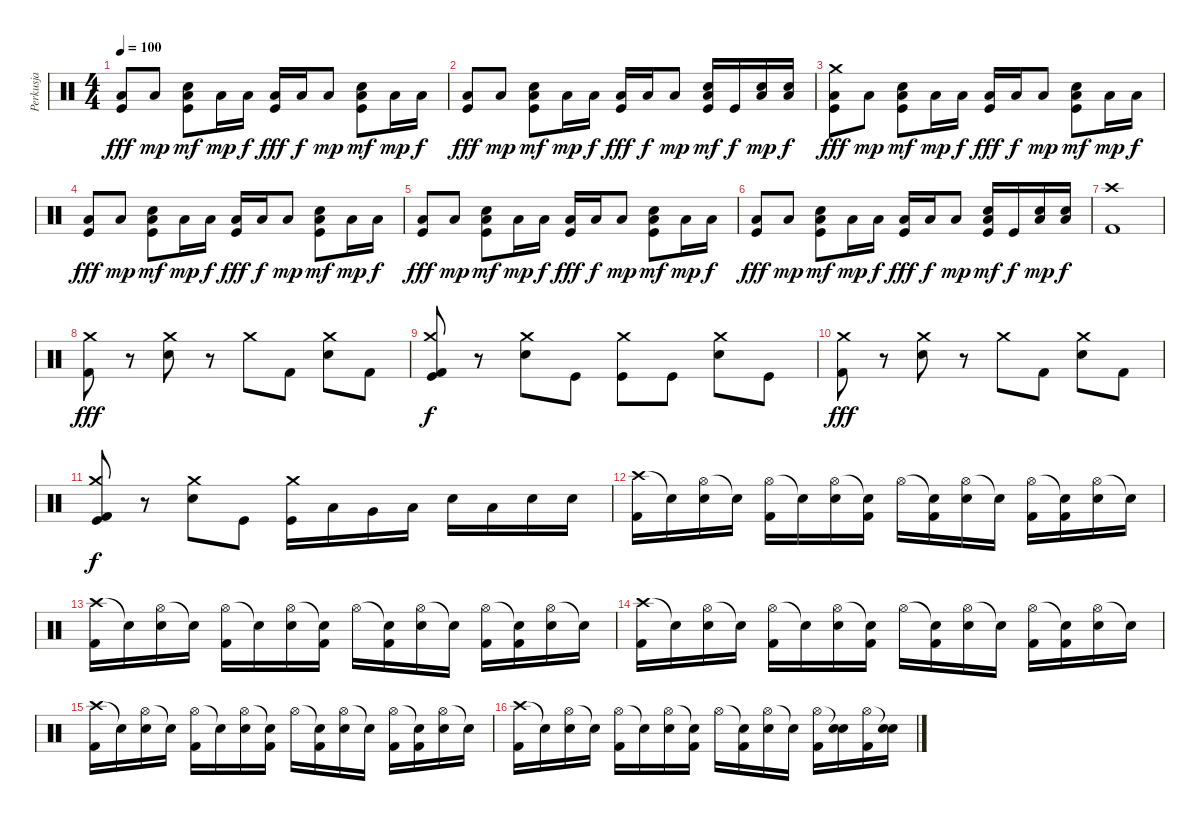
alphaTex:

\track ("Perkusja" "Perkusja") {instrument percussion}
\staff {score}
\articulation defaults
\ts (4 4)
\tempo 100
\clef neutral
\ks c
("Low Floor Tom (hit)" "Kick (hit)").8{dy fff} "Low Floor Tom (hit)".8{dy mp} ("Electric Snare (hit)" "Low Floor Tom (hit)" "Kick (hit)").8{dy mf} "Low Floor Tom (hit)".16{dy mp} "Low Tom (hit)".16{dy f} ("Low Floor Tom (hit)" "Kick (hit)").16{dy fff} "Low Tom (hit)".16{dy f} "Low Floor Tom (hit)".8{dy mp} ("Electric Snare (hit)" "Low Floor Tom (hit)" "Kick (hit)").8{dy mf} "Low Floor Tom (hit)".16{dy mp} "Low Tom (hit)".16{dy f} |
("Low Floor Tom (hit)" "Kick (hit)").8{dy fff} "Low Floor Tom (hit)".8{dy mp} ("Electric Snare (hit)" "Low Floor Tom (hit)" "Kick (hit)").8{dy mf} "Low Floor Tom (hit)".16{dy mp} "Low Tom (hit)".16{dy f} ("Low Floor Tom (hit)" "Kick (hit)").16{dy fff} "Low Tom (hit)".16{dy f} "Low Floor Tom (hit)".8{dy mp} ("Electric Snare (hit)" "Low Floor Tom (hit)" "Kick (hit)").16{dy mf} "Kick (hit)".16{dy f} ("Electric Snare (hit)" "Low Floor Tom (hit)").16{dy mp} ("Low Tom (hit)" "Electric Snare (hit)").16{dy f} |
("Crash medium (hit)" "Low Floor Tom (hit)" "Kick (hit)").8{dy fff} "Low Floor Tom (hit)".8{dy mp} ("Electric Snare (hit)" "Low Floor Tom (hit)" "Kick (hit)").8{dy mf} "Low Floor Tom (hit)".16{dy mp} "Low Tom (hit)".16{dy f} ("Low Floor Tom (hit)" "Kick (hit)").16{dy fff} "Low Tom (hit)".16{dy f} "Low Floor Tom (hit)".8{dy mp} ("Electric Snare (hit)" "Low Floor Tom (hit)" "Kick (hit)").8{dy mf} "Low Floor Tom (hit)".16{dy mp} "Low Tom (hit)".16{dy f} |
("Low Floor Tom (hit)" "Kick (hit)").8{dy fff} "Low Floor Tom (hit)".8{dy mp} ("Electric Snare (hit)" "Low Floor Tom (hit)" "Kick (hit)").8{dy mf} "Low Floor Tom (hit)".16{dy mp} "Low Tom (hit)".16{dy f} ("Low Floor Tom (hit)" "Kick (hit)").16{dy fff} "Low Tom (hit)".16{dy f} "Low Floor Tom (hit)".8{dy mp} ("Electric Snare (hit)" "Low Floor Tom (hit)" "Kick (hit)").8{dy mf} "Low Floor Tom (hit)".16{dy mp} "Low Tom (hit)".16{dy f} |
("Low Floor Tom (hit)" "Kick (hit)").8{dy fff} "Low Floor Tom (hit)".8{dy mp} ("Electric Snare (hit)" "Low Floor Tom (hit)" "Kick (hit)").8{dy mf} "Low Floor Tom (hit)".16{dy mp} "Low Tom (hit)".16{dy f} ("Low Floor Tom (hit)" "Kick (hit)").16{dy fff} "Low Tom (hit)".16{dy f} "Low Floor Tom (hit)".8{dy mp} ("Electric Snare (hit)" "Low Floor Tom (hit)" "Kick (hit)").8{dy mf} "Low Floor Tom (hit)".16{dy mp} "Low Tom (hit)".16{dy f} |
("Low Floor Tom (hit)" "Kick (hit)").8{dy fff} "Low Floor Tom (hit)".8{dy mp} ("Electric Snare (hit)" "Low Floor Tom (hit)" "Kick (hit)").8{dy mf} "Low Floor Tom (hit)".16{dy mp} "Low Tom (hit)".16{dy f} ("Low Floor Tom (hit)" "Kick (hit)").16{dy fff} "Low Tom (hit)".16{dy f} "Low Floor Tom (hit)".8{dy mp} ("Electric Snare (hit)" "Low Floor Tom (hit)" "Kick (hit)").16{dy mf} "Kick (hit)".16{dy f} ("Electric Snare (hit)" "Low Floor Tom (hit)").16{dy mp} ("Low Tom (hit)" "Electric Snare (hit)").16{dy f} |
("Crash high (hit)" "Kick (hit) 2").1 |
("Kick (hit) 2" "Crash medium (hit)").8{dy fff} r.8 ("Crash medium (hit)" "Snare (hit) 2").8 r.8 "Crash medium (hit)".8 "Kick (hit) 2".8 ("Crash medium (hit)" "Snare (hit) 2").8 "Kick (hit) 2".8 |
("Crash medium (hit)" "Kick (hit) 2" "Kick (hit)").8{dy f} r.8 ("Crash medium (hit)" "Snare (hit) 2").8 "Kick (hit)".8 ("Crash medium (hit)" "Kick (hit)").8 "Kick (hit)".8 ("Crash medium (hit)" "Snare (hit) 2").8 "Kick (hit)".8 |
("Kick (hit) 2" "Crash medium (hit)").8{dy fff} r.8 ("Crash medium (hit)" "Snare (hit) 2").8 r.8 "Crash medium (hit)".8 "Kick (hit) 2".8 ("Crash medium (hit)" "Snare (hit) 2").8 "Kick (hit) 2".8 |
("Crash medium (hit)" "Kick (hit) 2" "Kick (hit)").8{dy f} r.8 ("Crash medium (hit)" "Snare (hit) 2").8 "Kick (hit)".8 ("Crash medium (hit)" "Kick (hit)").16 "Low Floor Tom (hit)".16 "Very Low Tom (hit)".16 "Low Floor Tom (hit)".16 "Snare (hit) 2".16 "Low Floor Tom (hit)".16 "Snare (hit) 2".16 "Snare (hit) 2".16 |
("Crash high (hit)" "Kick (hit) 2").16 "Snare (hit)"{t}.16 ("Hi-Hat (open)" "Snare (hit) 2").16 "Snare (hit)"{t}.16 ("Hi-Hat (open)" "Kick (hit) 2").16 "Snare (hit)"{t}.16 ("Hi-Hat (open)" "Snare (hit) 2").16 ("Snare (hit)"{t} "Kick (hit) 2").16 "Hi-Hat (open)".16 ("Snare (hit)"{t} "Kick (hit) 2").16 ("Hi-Hat (open)" "Snare (hit) 2").16 "Snare (hit)"{t}.16 ("Hi-Hat (open)" "Kick (hit) 2").16 ("Snare (hit)"{t} "Kick (hit) 2").16 ("Hi-Hat (open)" "Snare (hit) 2").16 "Snare (hit)"{t}.16 |
("Crash high (hit)" "Kick (hit) 2").16 "Snare (hit)"{t}.16 ("Hi-Hat (open)" "Snare (hit) 2").16 "Snare (hit)"{t}.16 ("Hi-Hat (open)" "Kick (hit) 2").16 "Snare (hit)"{t}.16 ("Hi-Hat (open)" "Snare (hit) 2").16 ("Snare (hit)"{t} "Kick (hit) 2").16 "Hi-Hat (open)".16 ("Snare (hit)"{t} "Kick (hit) 2").16 ("Hi-Hat (open)" "Snare (hit) 2").16 "Snare (hit)"{t}.16 ("Hi-Hat (open)" "Kick (hit) 2").16 ("Snare (hit)"{t} "Kick (hit) 2").16 ("Hi-Hat (open)" "Snare (hit) 2").16 "Snare (hit)"{t}.16 |
("Crash high (hit)" "Kick (hit) 2").16 "Snare (hit)"{t}.16 ("Hi-Hat (open)" "Snare (hit) 2").16 "Snare (hit)"{t}.16 ("Hi-Hat (open)" "Kick (hit) 2").16 "Snare (hit)"{t}.16 ("Hi-Hat (open)" "Snare (hit) 2").16 ("Snare (hit)"{t} "Kick (hit) 2").16 "Hi-Hat (open)".16 ("Snare (hit)"{t} "Kick (hit) 2").16 ("Hi-Hat (open)" "Snare (hit) 2").16 "Snare (hit)"{t}.16 ("Hi-Hat (open)" "Kick (hit) 2").16 ("Snare (hit)"{t} "Kick (hit) 2").16 ("Hi-Hat (open)" "Snare (hit) 2").16 "Snare (hit)"{t}.16 |
("Crash high (hit)" "Kick (hit) 2").16 "Snare (hit)"{t}.16 ("Hi-Hat (open)" "Snare (hit) 2").16 "Snare (hit)"{t}.16 ("Hi-Hat (open)" "Kick (hit) 2").16 "Snare (hit)"{t}.16 ("Hi-Hat (open)" "Snare (hit) 2").16 ("Snare (hit)"{t} "Kick (hit) 2").16 "Hi-Hat (open)".16 ("Snare (hit)"{t} "Kick (hit) 2").16 ("Hi-Hat (open)" "Snare (hit) 2").16 "Snare (hit)"{t}.16 ("Hi-Hat (open)" "Kick (hit) 2").16 ("Snare (hit)"{t} "Kick (hit) 2").16 ("Hi-Hat (open)" "Snare (hit) 2").16 "Snare (hit)"{t}.16 |
("Crash high (hit)" "Kick (hit) 2").16 "Snare (hit)"{t}.16 ("Hi-Hat (open)" "Snare (hit) 2").16 "Snare (hit)"{t}.16 ("Hi-Hat (open)" "Kick (hit) 2").16 "Snare (hit)"{t}.16 ("Hi-Hat (open)" "Snare (hit) 2").16 ("Snare (hit)"{t} "Kick (hit) 2").16 "Hi-Hat (open)".16 ("Snare (hit)"{t} "Kick (hit) 2").16 ("Hi-Hat (open)" "Snare (hit) 2").16 "Snare (hit)"{t}.16 ("Hi-Hat (open)" "Kick (hit) 2").16 ("Snare (hit)"{t} "Electric Snare (hit)").16 ("Hi-Hat (open)" "Kick (hit) 2").16 ("Snare (hit)"{t} "Electric Snare (hit)").16
